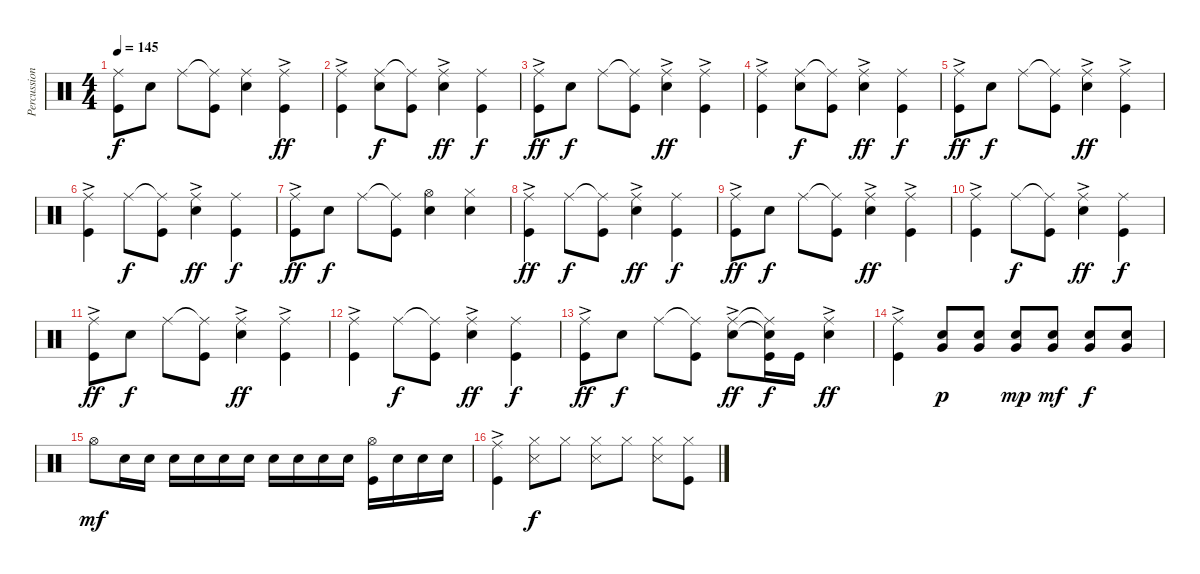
\track ("Percussion" "Percussion") {instrument percussion}
\staff {score}
\articulation defaults
\ts (4 4)
\tempo 145
\clef neutral
\ks c
("Ride (middle)" "Kick (hit)").8{dy f} "Snare (hit) 2".8 "Ride (middle)".8 ("Ride (middle)"{t} "Kick (hit)").8 ("Ride (middle)" "Snare (hit) 2").4 ("Ride (middle)"{ac} "Kick (hit)").4{dy ff} |
("Ride (middle)"{ac} "Kick (hit)").4 ("Ride (middle)" "Snare (hit) 2").8{dy f} ("Ride (middle)"{t} "Kick (hit)").8 ("Ride (middle)"{ac} "Snare (hit) 2").4{dy ff} ("Ride (middle)" "Kick (hit)").4{dy f} |
("Ride (middle)"{ac} "Kick (hit)").8{dy ff} "Snare (hit) 2".8{dy f} "Ride (middle)".8 ("Ride (middle)"{t} "Kick (hit)").8 ("Ride (middle)"{ac} "Snare (hit) 2").4{dy ff} ("Ride (middle)"{ac} "Kick (hit)").4 |
("Ride (middle)"{ac} "Kick (hit)").4 ("Ride (middle)" "Snare (hit) 2").8{dy f} ("Ride (middle)"{t} "Kick (hit)").8 ("Ride (middle)"{ac} "Snare (hit) 2").4{dy ff} ("Ride (middle)" "Kick (hit)").4{dy f} |
("Ride (middle)"{ac} "Kick (hit)").8{dy ff} "Snare (hit) 2".8{dy f} "Ride (middle)".8 ("Ride (middle)"{t} "Kick (hit)").8 ("Ride (middle)"{ac} "Snare (hit) 2").4{dy ff} ("Ride (middle)"{ac} "Kick (hit)").4 |
("Ride (middle)"{ac} "Kick (hit)").4 "Ride (middle)".8{dy f} ("Ride (middle)"{t} "Kick (hit)").8 ("Ride (middle)"{ac} "Snare (hit) 2").4{dy ff} ("Ride (middle)" "Kick (hit)").4{dy f} |
("Ride (middle)"{ac} "Kick (hit)").8{dy ff} "Snare (hit) 2".8{dy f} "Ride (middle)".8 ("Ride (middle)"{t} "Kick (hit)").8 ("Hi-Hat (open)" "Snare (hit) 2").4 ("Hi-Hat (closed)" "Snare (hit) 2").4 |
("Ride (middle)"{ac} "Kick (hit)").4{dy ff} "Ride (middle)".8{dy f} ("Ride (middle)"{t} "Kick (hit)").8 ("Ride (middle)"{ac} "Snare (hit) 2").4{dy ff} ("Ride (middle)" "Kick (hit)").4{dy f} |
("Ride (middle)"{ac} "Kick (hit)").8{dy ff} "Snare (hit) 2".8{dy f} "Ride (middle)".8 ("Ride (middle)"{t} "Kick (hit)").8 ("Ride (middle)"{ac} "Snare (hit) 2").4{dy ff} ("Ride (middle)"{ac} "Kick (hit)").4 |
("Ride (middle)"{ac} "Kick (hit)").4 "Ride (middle)".8{dy f} ("Ride (middle)"{t} "Kick (hit)").8 ("Ride (middle)"{ac} "Snare (hit) 2").4{dy ff} ("Ride (middle)" "Kick (hit)").4{dy f} |
("Ride (middle)"{ac} "Kick (hit)").8{dy ff} "Snare (hit) 2".8{dy f} "Ride (middle)".8 ("Ride (middle)"{t} "Kick (hit)").8 ("Ride (middle)"{ac} "Snare (hit) 2").4{dy ff} ("Ride (middle)"{ac} "Kick (hit)").4 |
("Ride (middle)"{ac} "Kick (hit)").4 "Ride (middle)".8{dy f} ("Ride (middle)"{t} "Kick (hit)").8 ("Ride (middle)"{ac} "Snare (hit) 2").4{dy ff} ("Ride (middle)" "Kick (hit)").4{dy f} |
("Ride (middle)"{ac} "Kick (hit)").8{dy ff} "Snare (hit) 2".8{dy f} "Ride (middle)".8 ("Ride (middle)"{t} "Kick (hit)").8 ("Ride (middle)"{ac} "Snare (hit) 2").8{dy ff} ("Ride (middle)"{t} "Snare (hit) 2"{t} "Kick (hit)").16{dy f} "Kick (hit)".16 ("Ride (middle)"{ac} "Snare (hit) 2").4{dy ff} |
("Ride (middle)"{ac} "Kick (hit)").4 ("Snare (hit) 2" "Very Low Tom (hit)").8{dy p} ("Snare (hit) 2" "Very Low Tom (hit)").8 ("Snare (hit) 2" "Very Low Tom (hit)").8{dy mp} ("Snare (hit) 2" "Very Low Tom (hit)").8{dy mf} ("Snare (hit) 2" "Very Low Tom (hit)").8{dy f} ("Snare (hit) 2" "Very Low Tom (hit)").8 |
"Hi-Hat (open)".8{dy mf} "Snare (hit) 2".16 "Snare (hit) 2".16 "Snare (hit) 2".16 "Snare (hit) 2".16 "Snare (hit) 2".16 "Snare (hit) 2".16 "Snare (hit) 2".16 "Snare (hit) 2".16 "Snare (hit) 2".16 "Snare (hit) 2".16 ("Hi-Hat (open)" "Kick (hit)").16 "Snare (hit) 2".16 "Snare (hit) 2".16 "Snare (hit) 2".16 |
("Ride (middle)"{ac} "Kick (hit)").4 ("Hi-Hat (closed)" "Snare (side stick) 3").8{dy f} "Hi-Hat (closed)".8 ("Hi-Hat (closed)" "Snare (side stick) 3").8 "Hi-Hat (closed)".8 ("Hi-Hat (closed)" "Snare (side stick) 3").8 ("Hi-Hat (closed)" "Kick (hit)").8
